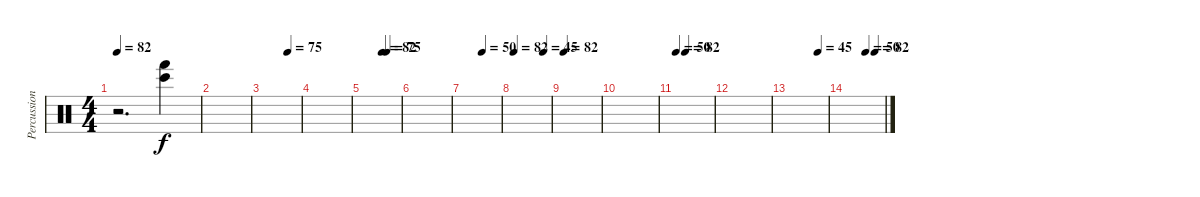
\track ("Percussion" "Percussion") {instrument percussion}
\staff {score}
\articulation defaults
\ts (4 4)
\tempo 82
\clef neutral
\ks c
r.2{d dy f} ("Bongo High (hit)" "Hand (hit)").4 |
\section ("" "")
|
\tempo (75 0.65625)
|
|
\tempo (82 0.5)
\tempo (75 0.625)
|
|
\tempo (50 0.5)
|
\tempo 82
\tempo (45 0.8125)
|
\tempo 82
|
|
\tempo 50
\tempo (82 0.25)
|
|
\tempo (45 0.75)
|
\tempo (50 0.5)
\tempo (82 0.75)
